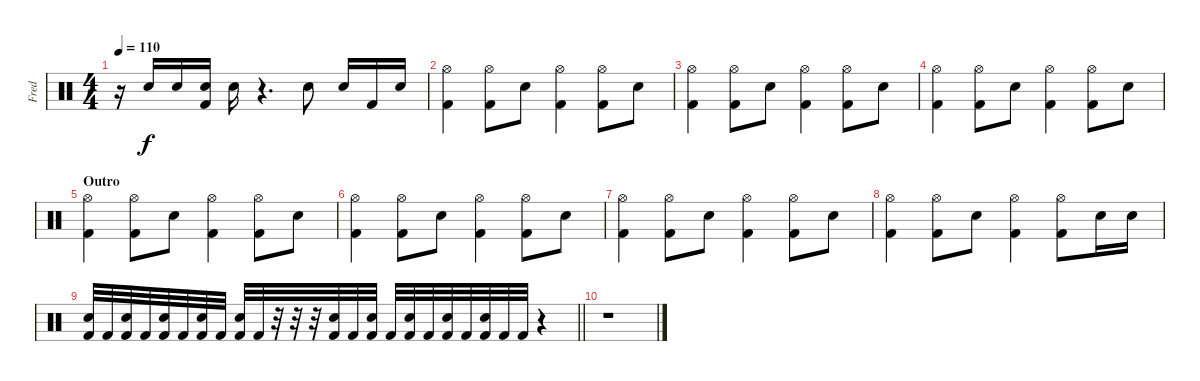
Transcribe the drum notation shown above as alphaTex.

\track ("Fred" "Fred") {instrument percussion}
\staff {score}
\articulation defaults
\ts (4 4)
\tempo 110
\clef neutral
\ks c
r.16{dy f} "Electric Snare (hit)".16 "Electric Snare (hit)".16 ("Electric Snare (hit)" "Kick (hit) 2").16 "Electric Snare (hit)".16 r.4{d} "Electric Snare (hit)".8 "Electric Snare (hit)".16 "Kick (hit) 2".16 "Electric Snare (hit)".16 |
("Hi-Hat (open)" "Kick (hit) 2").4 ("Hi-Hat (open)" "Kick (hit) 2").8 "Electric Snare (hit)".8 ("Hi-Hat (open)" "Kick (hit) 2").4 ("Hi-Hat (open)" "Kick (hit) 2").8 "Electric Snare (hit)".8 |
("Hi-Hat (open)" "Kick (hit) 2").4 ("Hi-Hat (open)" "Kick (hit) 2").8 "Electric Snare (hit)".8 ("Hi-Hat (open)" "Kick (hit) 2").4 ("Hi-Hat (open)" "Kick (hit) 2").8 "Electric Snare (hit)".8 |
("Hi-Hat (open)" "Kick (hit) 2").4 ("Hi-Hat (open)" "Kick (hit) 2").8 "Electric Snare (hit)".8 ("Hi-Hat (open)" "Kick (hit) 2").4 ("Hi-Hat (open)" "Kick (hit) 2").8 "Electric Snare (hit)".8 |
\section ("" "Outro")
("Hi-Hat (open)" "Kick (hit) 2").4 ("Hi-Hat (open)" "Kick (hit) 2").8 "Electric Snare (hit)".8 ("Hi-Hat (open)" "Kick (hit) 2").4 ("Hi-Hat (open)" "Kick (hit) 2").8 "Electric Snare (hit)".8 |
("Hi-Hat (open)" "Kick (hit) 2").4 ("Hi-Hat (open)" "Kick (hit) 2").8 "Electric Snare (hit)".8 ("Hi-Hat (open)" "Kick (hit) 2").4 ("Hi-Hat (open)" "Kick (hit) 2").8 "Electric Snare (hit)".8 |
("Hi-Hat (open)" "Kick (hit) 2").4 ("Hi-Hat (open)" "Kick (hit) 2").8 "Electric Snare (hit)".8 ("Hi-Hat (open)" "Kick (hit) 2").4 ("Hi-Hat (open)" "Kick (hit) 2").8 "Electric Snare (hit)".8 |
("Hi-Hat (open)" "Kick (hit) 2").4 ("Hi-Hat (open)" "Kick (hit) 2").8 "Electric Snare (hit)".8 ("Hi-Hat (open)" "Kick (hit) 2").4 ("Hi-Hat (open)" "Kick (hit) 2").8 "Electric Snare (hit)".16 "Electric Snare (hit)".16 |
\barLineRight lightlight
("Electric Snare (hit)" "Kick (hit) 2").32 "Kick (hit) 2".32 ("Electric Snare (hit)" "Kick (hit) 2").32 "Kick (hit) 2".32 ("Electric Snare (hit)" "Kick (hit) 2").32 "Kick (hit) 2".32 ("Electric Snare (hit)" "Kick (hit) 2").32 "Kick (hit) 2".32 ("Electric Snare (hit)" "Kick (hit) 2").32 "Kick (hit) 2".32 r.32 r.32 r.32 ("Electric Snare (hit)" "Kick (hit) 2").32 "Kick (hit) 2".32 ("Electric Snare (hit)" "Kick (hit) 2").32 "Kick (hit) 2".32 ("Electric Snare (hit)" "Kick (hit) 2").32 "Kick (hit) 2".32 ("Electric Snare (hit)" "Kick (hit) 2").32 "Kick (hit) 2".32 ("Electric Snare (hit)" "Kick (hit) 2").32 "Kick (hit) 2".32 "Kick (hit) 2".32 r.4 |
r.1
